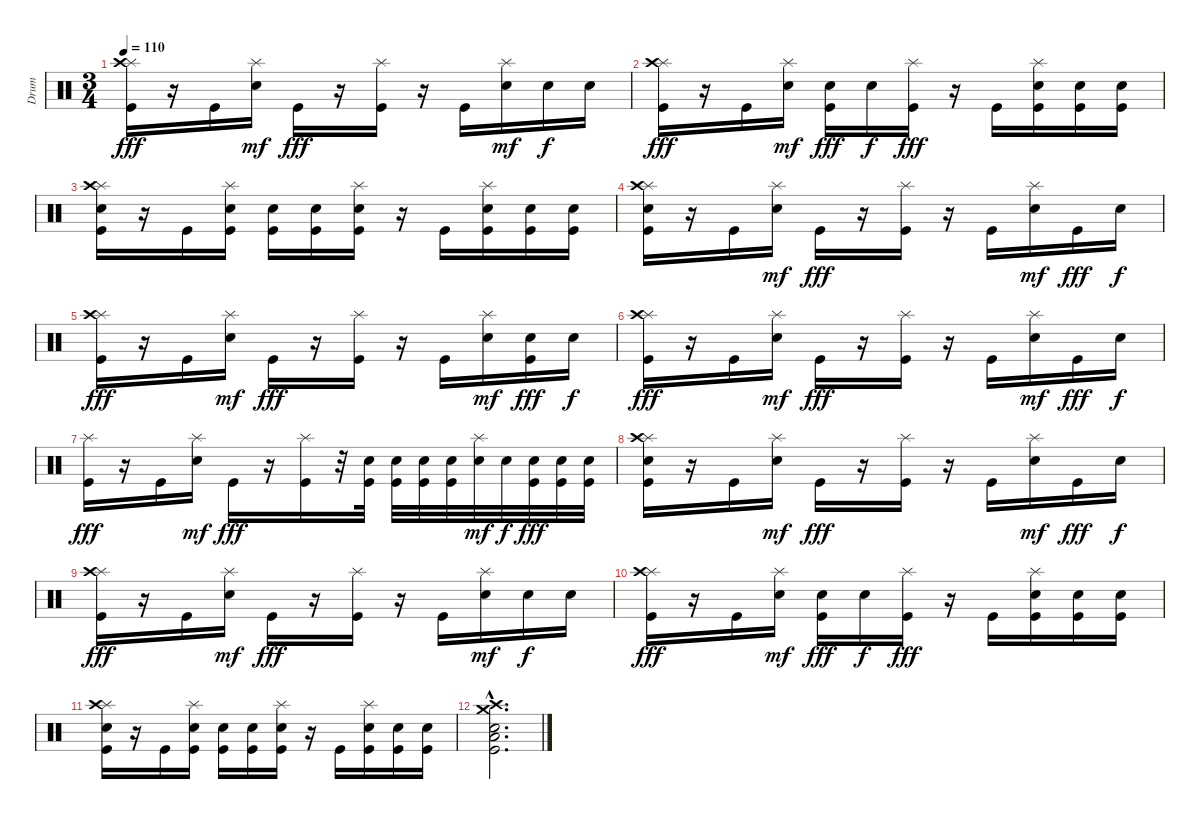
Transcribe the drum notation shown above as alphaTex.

\track ("Drum" "Drum") {instrument percussion}
\staff {score}
\articulation defaults
\ts (3 4)
\tempo 110
\clef neutral
\ks c
("Splash (hit)" "Crash high (hit)" "Kick (hit)").16{dy fff} r.16 "Kick (hit)".16 ("Splash (hit)" "Electric Snare (hit)").16{dy mf} "Kick (hit)".16{dy fff} r.16 ("Splash (hit)" "Kick (hit)").16 r.16 "Kick (hit)".16 ("Splash (hit)" "Electric Snare (hit)").16{dy mf} "Electric Snare (hit)".16{dy f} "Electric Snare (hit)".16 |
("Splash (hit)" "Crash high (hit)" "Kick (hit)").16{dy fff} r.16 "Kick (hit)".16 ("Splash (hit)" "Electric Snare (hit)").16{dy mf} ("Electric Snare (hit)" "Kick (hit)").16{dy fff} "Electric Snare (hit)".16{dy f} ("Splash (hit)" "Kick (hit)").16{dy fff} r.16 "Kick (hit)".16 ("Splash (hit)" "Electric Snare (hit)" "Kick (hit)").16 ("Electric Snare (hit)" "Kick (hit)").16 ("Electric Snare (hit)" "Kick (hit)").16 |
("Splash (hit)" "Crash high (hit)" "Electric Snare (hit)" "Kick (hit)").16 r.16 "Kick (hit)".16 ("Splash (hit)" "Electric Snare (hit)" "Kick (hit)").16 ("Electric Snare (hit)" "Kick (hit)").16 ("Electric Snare (hit)" "Kick (hit)").16 ("Splash (hit)" "Electric Snare (hit)" "Kick (hit)").16 r.16 "Kick (hit)".16 ("Splash (hit)" "Electric Snare (hit)" "Kick (hit)").16 ("Electric Snare (hit)" "Kick (hit)").16 ("Electric Snare (hit)" "Kick (hit)").16 |
("Splash (hit)" "Crash high (hit)" "Electric Snare (hit)" "Kick (hit)").16 r.16 "Kick (hit)".16 ("Splash (hit)" "Electric Snare (hit)").16{dy mf} "Kick (hit)".16{dy fff} r.16 ("Splash (hit)" "Kick (hit)").16 r.16 "Kick (hit)".16 ("Splash (hit)" "Electric Snare (hit)").16{dy mf} "Kick (hit)".16{dy fff} "Electric Snare (hit)".16{dy f} |
("Splash (hit)" "Crash high (hit)" "Kick (hit)").16{dy fff} r.16 "Kick (hit)".16 ("Splash (hit)" "Electric Snare (hit)").16{dy mf} "Kick (hit)".16{dy fff} r.16 ("Splash (hit)" "Kick (hit)").16 r.16 "Kick (hit)".16 ("Splash (hit)" "Electric Snare (hit)").16{dy mf} ("Electric Snare (hit)" "Kick (hit)").16{dy fff} "Electric Snare (hit)".16{dy f} |
("Splash (hit)" "Crash high (hit)" "Kick (hit)").16{dy fff} r.16 "Kick (hit)".16 ("Splash (hit)" "Electric Snare (hit)").16{dy mf} "Kick (hit)".16{dy fff} r.16 ("Splash (hit)" "Kick (hit)").16 r.16 "Kick (hit)".16 ("Splash (hit)" "Electric Snare (hit)").16{dy mf} "Kick (hit)".16{dy fff} "Electric Snare (hit)".16{dy f} |
("Splash (hit)" "Kick (hit)").16{dy fff} r.16 "Kick (hit)".16 ("Splash (hit)" "Electric Snare (hit)").16{dy mf} "Kick (hit)".16{dy fff} r.16 ("Splash (hit)" "Kick (hit)").16 r.32 ("Electric Snare (hit)" "Kick (hit)").32 ("Electric Snare (hit)" "Kick (hit)").32 ("Electric Snare (hit)" "Kick (hit)").32 ("Electric Snare (hit)" "Kick (hit)").32 ("Splash (hit)" "Electric Snare (hit)").32{dy mf} "Electric Snare (hit)".32{dy f} ("Electric Snare (hit)" "Kick (hit)").32{dy fff} ("Electric Snare (hit)" "Kick (hit)").32 ("Electric Snare (hit)" "Kick (hit)").32 |
("Splash (hit)" "Crash high (hit)" "Electric Snare (hit)" "Kick (hit)").16 r.16 "Kick (hit)".16 ("Splash (hit)" "Electric Snare (hit)").16{dy mf} "Kick (hit)".16{dy fff} r.16 ("Splash (hit)" "Kick (hit)").16 r.16 "Kick (hit)".16 ("Splash (hit)" "Electric Snare (hit)").16{dy mf} "Kick (hit)".16{dy fff} "Electric Snare (hit)".16{dy f} |
("Splash (hit)" "Crash high (hit)" "Kick (hit)").16{dy fff} r.16 "Kick (hit)".16 ("Splash (hit)" "Electric Snare (hit)").16{dy mf} "Kick (hit)".16{dy fff} r.16 ("Splash (hit)" "Kick (hit)").16 r.16 "Kick (hit)".16 ("Splash (hit)" "Electric Snare (hit)").16{dy mf} "Electric Snare (hit)".16{dy f} "Electric Snare (hit)".16 |
("Splash (hit)" "Crash high (hit)" "Kick (hit)").16{dy fff} r.16 "Kick (hit)".16 ("Splash (hit)" "Electric Snare (hit)").16{dy mf} ("Electric Snare (hit)" "Kick (hit)").16{dy fff} "Electric Snare (hit)".16{dy f} ("Splash (hit)" "Kick (hit)").16{dy fff} r.16 "Kick (hit)".16 ("Splash (hit)" "Electric Snare (hit)" "Kick (hit)").16 ("Electric Snare (hit)" "Kick (hit)").16 ("Electric Snare (hit)" "Kick (hit)").16 |
("Splash (hit)" "Crash high (hit)" "Electric Snare (hit)" "Kick (hit)").16 r.16 "Kick (hit)".16 ("Splash (hit)" "Electric Snare (hit)" "Kick (hit)").16 ("Electric Snare (hit)" "Kick (hit)").16 ("Electric Snare (hit)" "Kick (hit)").16 ("Splash (hit)" "Electric Snare (hit)" "Kick (hit)").16 r.16 "Kick (hit)".16 ("Splash (hit)" "Electric Snare (hit)" "Kick (hit)").16 ("Electric Snare (hit)" "Kick (hit)").16 ("Electric Snare (hit)" "Kick (hit)").16 |
("Crash medium (hit)"{hac} "Crash high (hit)"{hac} "Electric Snare (hit)"{hac} "Low Floor Tom (hit)"{hac} "Kick (hit)"{hac}).2{d}
